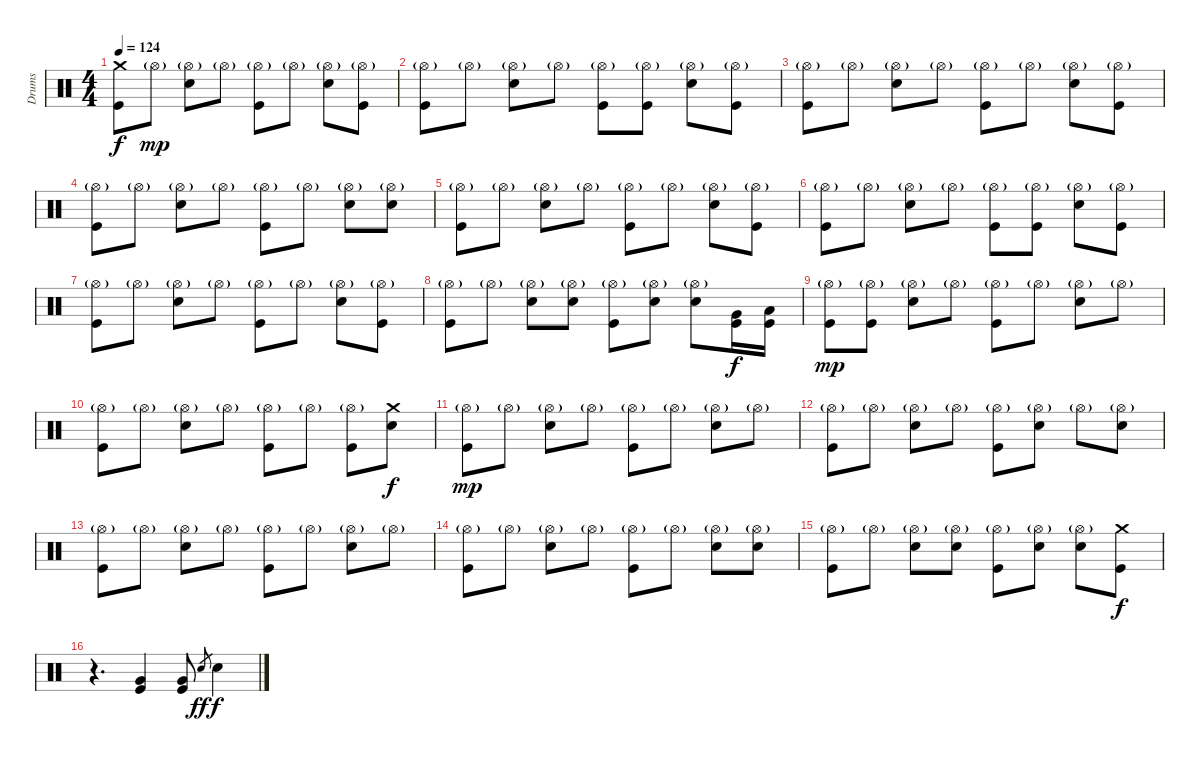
\track ("Drums" "Drums") {instrument percussion}
\staff {score}
\articulation defaults
\ts (4 4)
\tempo 124
\clef neutral
\ks c
("Crash medium (hit)" "Kick (hit)").8{dy f} "Hi-Hat (open)"{g}.8{dy mp} ("Hi-Hat (open)"{g} "Snare (hit) 2").8 "Hi-Hat (open)"{g}.8 ("Hi-Hat (open)"{g} "Kick (hit)").8 "Hi-Hat (open)"{g}.8 ("Hi-Hat (open)"{g} "Snare (hit) 2").8 ("Hi-Hat (open)"{g} "Kick (hit)").8 |
("Hi-Hat (open)"{g} "Kick (hit)").8 "Hi-Hat (open)"{g}.8 ("Hi-Hat (open)"{g} "Snare (hit) 2").8 "Hi-Hat (open)"{g}.8 ("Hi-Hat (open)"{g} "Kick (hit)").8 ("Hi-Hat (open)"{g} "Kick (hit)").8 ("Hi-Hat (open)"{g} "Snare (hit) 2").8 ("Hi-Hat (open)"{g} "Kick (hit)").8 |
("Hi-Hat (open)"{g} "Kick (hit)").8 "Hi-Hat (open)"{g}.8 ("Hi-Hat (open)"{g} "Snare (hit) 2").8 "Hi-Hat (open)"{g}.8 ("Hi-Hat (open)"{g} "Kick (hit)").8 "Hi-Hat (open)"{g}.8 ("Hi-Hat (open)"{g} "Snare (hit) 2").8 ("Hi-Hat (open)"{g} "Kick (hit)").8 |
("Hi-Hat (open)"{g} "Kick (hit)").8 "Hi-Hat (open)"{g}.8 ("Hi-Hat (open)"{g} "Snare (hit) 2").8 "Hi-Hat (open)"{g}.8 ("Hi-Hat (open)"{g} "Kick (hit)").8 "Hi-Hat (open)"{g}.8 ("Hi-Hat (open)"{g} "Snare (hit) 2").8 ("Hi-Hat (open)"{g} "Snare (hit) 2").8 |
("Hi-Hat (open)"{g} "Kick (hit)").8 "Hi-Hat (open)"{g}.8 ("Hi-Hat (open)"{g} "Snare (hit) 2").8 "Hi-Hat (open)"{g}.8 ("Hi-Hat (open)"{g} "Kick (hit)").8 "Hi-Hat (open)"{g}.8 ("Hi-Hat (open)"{g} "Snare (hit) 2").8 ("Hi-Hat (open)"{g} "Kick (hit)").8 |
("Hi-Hat (open)"{g} "Kick (hit)").8 "Hi-Hat (open)"{g}.8 ("Hi-Hat (open)"{g} "Snare (hit) 2").8 "Hi-Hat (open)"{g}.8 ("Hi-Hat (open)"{g} "Kick (hit)").8 ("Hi-Hat (open)"{g} "Kick (hit)").8 ("Hi-Hat (open)"{g} "Snare (hit) 2").8 ("Hi-Hat (open)"{g} "Kick (hit)").8 |
("Hi-Hat (open)"{g} "Kick (hit)").8 "Hi-Hat (open)"{g}.8 ("Hi-Hat (open)"{g} "Snare (hit) 2").8 "Hi-Hat (open)"{g}.8 ("Hi-Hat (open)"{g} "Kick (hit)").8 "Hi-Hat (open)"{g}.8 ("Hi-Hat (open)"{g} "Snare (hit) 2").8 ("Hi-Hat (open)"{g} "Kick (hit)").8 |
("Hi-Hat (open)"{g} "Kick (hit)").8 "Hi-Hat (open)"{g}.8 ("Hi-Hat (open)"{g} "Snare (hit) 2").8 ("Hi-Hat (open)"{g} "Snare (hit) 2").8 ("Hi-Hat (open)"{g} "Kick (hit)").8 ("Hi-Hat (open)"{g} "Snare (hit) 2").8 ("Hi-Hat (open)"{g} "Snare (hit) 2").8 ("Very Low Tom (hit)" "Kick (hit)").16{dy f} ("Low Floor Tom (hit)" "Kick (hit)").16 |
("Hi-Hat (open)"{g} "Kick (hit)").8{dy mp} ("Hi-Hat (open)"{g} "Kick (hit)").8 ("Hi-Hat (open)"{g} "Snare (hit) 2").8 "Hi-Hat (open)"{g}.8 ("Hi-Hat (open)"{g} "Kick (hit)").8 "Hi-Hat (open)"{g}.8 ("Hi-Hat (open)"{g} "Snare (hit) 2").8 "Hi-Hat (open)"{g}.8 |
("Hi-Hat (open)"{g} "Kick (hit)").8 "Hi-Hat (open)"{g}.8 ("Hi-Hat (open)"{g} "Snare (hit) 2").8 "Hi-Hat (open)"{g}.8 ("Hi-Hat (open)"{g} "Kick (hit)").8 "Hi-Hat (open)"{g}.8 ("Hi-Hat (open)"{g} "Kick (hit)").8 ("Crash medium (hit)" "Snare (hit) 2").8{dy f} |
("Hi-Hat (open)"{g} "Kick (hit)").8{dy mp} "Hi-Hat (open)"{g}.8 ("Hi-Hat (open)"{g} "Snare (hit) 2").8 "Hi-Hat (open)"{g}.8 ("Hi-Hat (open)"{g} "Kick (hit)").8 "Hi-Hat (open)"{g}.8 ("Hi-Hat (open)"{g} "Snare (hit) 2").8 "Hi-Hat (open)"{g}.8 |
("Hi-Hat (open)"{g} "Kick (hit)").8 "Hi-Hat (open)"{g}.8 ("Hi-Hat (open)"{g} "Snare (hit) 2").8 "Hi-Hat (open)"{g}.8 ("Hi-Hat (open)"{g} "Kick (hit)").8 ("Hi-Hat (open)"{g} "Snare (hit) 2").8 "Hi-Hat (open)"{g}.8 ("Hi-Hat (open)"{g} "Snare (hit) 2").8 |
("Hi-Hat (open)"{g} "Kick (hit)").8 "Hi-Hat (open)"{g}.8 ("Hi-Hat (open)"{g} "Snare (hit) 2").8 "Hi-Hat (open)"{g}.8 ("Hi-Hat (open)"{g} "Kick (hit)").8 "Hi-Hat (open)"{g}.8 ("Hi-Hat (open)"{g} "Snare (hit) 2").8 "Hi-Hat (open)"{g}.8 |
("Hi-Hat (open)"{g} "Kick (hit)").8 "Hi-Hat (open)"{g}.8 ("Hi-Hat (open)"{g} "Snare (hit) 2").8 "Hi-Hat (open)"{g}.8 ("Hi-Hat (open)"{g} "Kick (hit)").8 "Hi-Hat (open)"{g}.8 ("Hi-Hat (open)"{g} "Snare (hit) 2").8 ("Hi-Hat (open)"{g} "Snare (hit) 2").8 |
("Hi-Hat (open)"{g} "Kick (hit)").8 "Hi-Hat (open)"{g}.8 ("Hi-Hat (open)"{g} "Snare (hit) 2").8 ("Hi-Hat (open)"{g} "Snare (hit) 2").8 ("Hi-Hat (open)"{g} "Kick (hit)").8 ("Hi-Hat (open)"{g} "Snare (hit) 2").8 ("Hi-Hat (open)"{g} "Snare (hit) 2").8 ("Crash medium (hit)" "Kick (hit)").8{dy f} |
r.4{d} ("Very Low Tom (hit)" "Kick (hit)").4 ("Very Low Tom (hit)" "Kick (hit)").8 "Snare (hit) 2"{h}.8{gr dy ff} "Snare (hit) 2".4{dy f}
